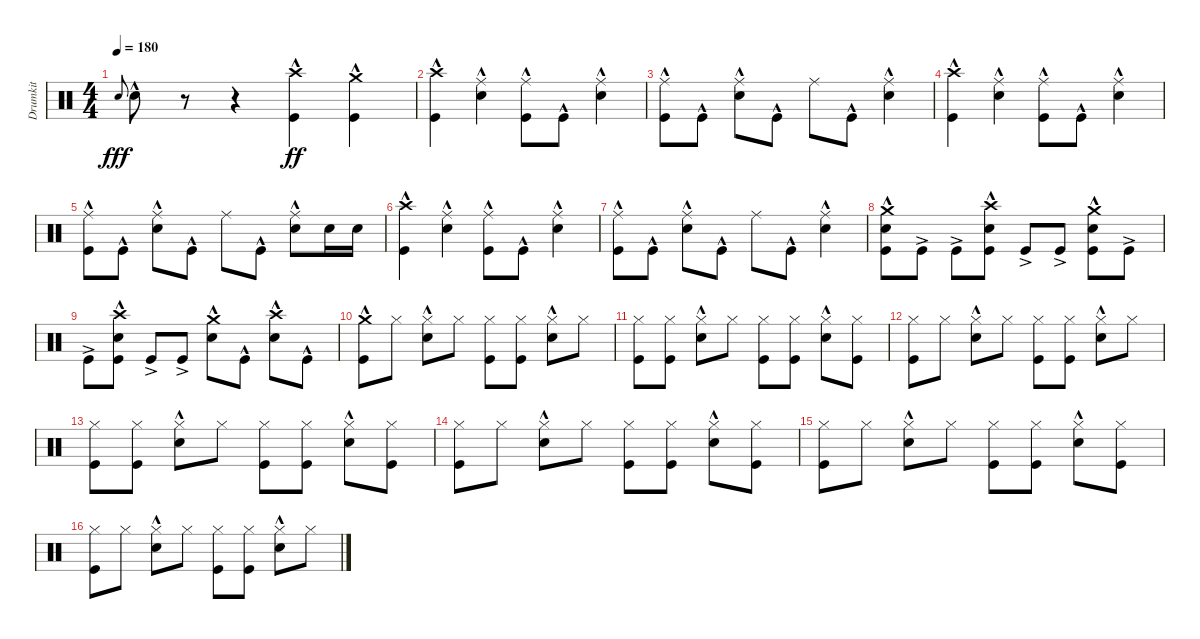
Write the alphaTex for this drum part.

\track ("Drumkit" "Drumkit") {instrument percussion}
\staff {score}
\articulation defaults
\ts (4 4)
\tempo 180
\clef neutral
\ks c "Snare (hit)".8{gr onbeat dy fff} "Snare (hit) 2"{hac}.8
r.8 r.4 ("Kick (hit)"{hac} "Crash high (hit)"{hac}).4{dy ff} ("Kick (hit)"{hac} "Crash medium (hit)"{hac}).4 |
("Crash high (hit)"{hac} "Kick (hit)"{hac}).4 ("Ride (middle)" "Snare (hit) 2"{hac}).4 ("Ride (middle)" "Kick (hit)"{hac}).8 "Kick (hit)"{hac}.8 ("Ride (middle)" "Snare (hit) 2"{hac}).4 |
("Ride (middle)" "Kick (hit)"{hac}).8 "Kick (hit)"{hac}.8 ("Ride (middle)" "Snare (hit) 2"{hac}).8 "Kick (hit)"{hac}.8 "Ride (middle)".8 "Kick (hit)"{hac}.8 ("Ride (middle)" "Snare (hit) 2"{hac}).4 |
("Crash high (hit)"{hac} "Kick (hit)"{hac}).4 ("Ride (middle)" "Snare (hit) 2"{hac}).4 ("Ride (middle)" "Kick (hit)"{hac}).8 "Kick (hit)"{hac}.8 ("Ride (middle)" "Snare (hit) 2"{hac}).4 |
("Ride (middle)" "Kick (hit)"{hac}).8 "Kick (hit)"{hac}.8 ("Ride (middle)" "Snare (hit) 2"{hac}).8 "Kick (hit)"{hac}.8 "Ride (middle)".8 "Kick (hit)"{hac}.8 ("Ride (middle)" "Snare (hit) 2"{hac}).8 "Snare (hit) 2".16 "Snare (hit) 2".16 |
("Crash high (hit)"{hac} "Kick (hit)"{hac}).4 ("Ride (middle)" "Snare (hit) 2"{hac}).4 ("Ride (middle)" "Kick (hit)"{hac}).8 "Kick (hit)"{hac}.8 ("Ride (middle)" "Snare (hit) 2"{hac}).4 |
("Ride (middle)" "Kick (hit)"{hac}).8 "Kick (hit)"{hac}.8 ("Ride (middle)" "Snare (hit) 2"{hac}).8 "Kick (hit)"{hac}.8 "Ride (middle)".8 "Kick (hit)"{hac}.8 ("Ride (middle)" "Snare (hit) 2"{hac}).4 |
("Snare (hit) 2"{hac} "Kick (hit)"{hac} "Crash medium (hit)"{hac}).8 "Kick (hit)"{ac}.8 "Kick (hit)"{ac}.8 ("Snare (hit) 2"{hac} "Kick (hit)"{hac} "Crash high (hit)"{hac}).8 "Kick (hit)"{ac}.8 "Kick (hit)"{ac}.8 ("Snare (hit) 2"{hac} "Kick (hit)"{hac} "Crash medium (hit)"{hac}).8 "Kick (hit)"{ac}.8 |
"Kick (hit)"{ac}.8 ("Kick (hit)"{hac} "Snare (hit) 2"{hac} "Crash high (hit)"{hac}).8 "Kick (hit)"{ac}.8 "Kick (hit)"{ac}.8 ("Snare (hit) 2"{hac} "Crash medium (hit)"{hac}).8 "Kick (hit)"{hac}.8 ("Snare (hit) 2"{hac} "Crash high (hit)"{hac}).8 "Kick (hit)"{hac}.8 |
("Kick (hit)"{hac} "Crash medium (hit)"{hac}).8 "Hi-Hat (closed)".8 ("Hi-Hat (closed)" "Snare (hit) 2"{hac}).8 "Hi-Hat (closed)".8 ("Hi-Hat (closed)" "Kick (hit)").8 ("Hi-Hat (closed)" "Kick (hit)").8 ("Hi-Hat (closed)" "Snare (hit) 2"{hac}).8 "Hi-Hat (closed)".8 |
("Hi-Hat (closed)" "Kick (hit)").8 ("Hi-Hat (closed)" "Kick (hit)").8 ("Hi-Hat (closed)" "Snare (hit) 2"{hac}).8 "Hi-Hat (closed)".8 ("Hi-Hat (closed)" "Kick (hit)").8 ("Hi-Hat (closed)" "Kick (hit)").8 ("Hi-Hat (closed)" "Snare (hit) 2"{hac}).8 ("Hi-Hat (closed)" "Kick (hit)").8 |
("Hi-Hat (closed)" "Kick (hit)").8 "Hi-Hat (closed)".8 ("Hi-Hat (closed)" "Snare (hit) 2"{hac}).8 "Hi-Hat (closed)".8 ("Hi-Hat (closed)" "Kick (hit)").8 ("Hi-Hat (closed)" "Kick (hit)").8 ("Hi-Hat (closed)" "Snare (hit) 2"{hac}).8 "Hi-Hat (closed)".8 |
("Hi-Hat (closed)" "Kick (hit)").8 ("Hi-Hat (closed)" "Kick (hit)").8 ("Hi-Hat (closed)" "Snare (hit) 2"{hac}).8 "Hi-Hat (closed)".8 ("Hi-Hat (closed)" "Kick (hit)").8 ("Hi-Hat (closed)" "Kick (hit)").8 ("Hi-Hat (closed)" "Snare (hit) 2"{hac}).8 ("Hi-Hat (closed)" "Kick (hit)").8 |
("Kick (hit)" "Hi-Hat (closed)").8 "Hi-Hat (closed)".8 ("Hi-Hat (closed)" "Snare (hit) 2"{hac}).8 "Hi-Hat (closed)".8 ("Hi-Hat (closed)" "Kick (hit)").8 ("Hi-Hat (closed)" "Kick (hit)").8 ("Hi-Hat (closed)" "Snare (hit) 2"{hac}).8 ("Hi-Hat (closed)" "Kick (hit)").8 |
("Kick (hit)" "Hi-Hat (closed)").8 "Hi-Hat (closed)".8 ("Hi-Hat (closed)" "Snare (hit) 2"{hac}).8 "Hi-Hat (closed)".8 ("Hi-Hat (closed)" "Kick (hit)").8 ("Hi-Hat (closed)" "Kick (hit)").8 ("Hi-Hat (closed)" "Snare (hit) 2"{hac}).8 ("Hi-Hat (closed)" "Kick (hit)").8 |
("Hi-Hat (closed)" "Kick (hit)").8 "Hi-Hat (closed)".8 ("Hi-Hat (closed)" "Snare (hit) 2"{hac}).8 "Hi-Hat (closed)".8 ("Hi-Hat (closed)" "Kick (hit)").8 ("Hi-Hat (closed)" "Kick (hit)").8 ("Hi-Hat (closed)" "Snare (hit) 2"{hac}).8 "Hi-Hat (closed)".8
